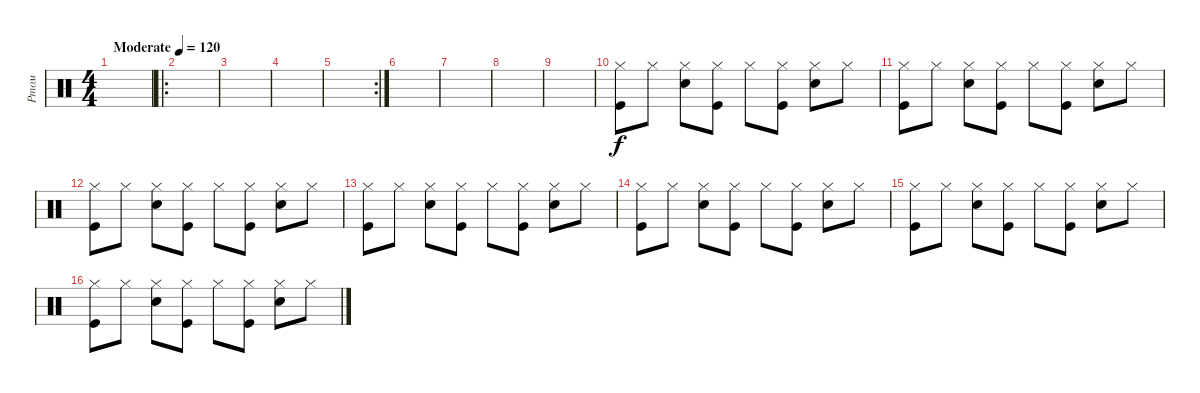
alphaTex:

\track ("Ртом" "Ртом") {instrument percussion}
\staff {score}
\articulation defaults
\ts (4 4)
\tempo (120 "Moderate")
\clef neutral
\ks c
|
\ro
|
|
|
\rc 2
|
|
|
|
|
("Hi-Hat (closed)" "Kick (hit)").8 "Hi-Hat (closed)".8 ("Hi-Hat (closed)" "Snare (hit) 2").8 ("Hi-Hat (closed)" "Kick (hit)").8 "Hi-Hat (closed)".8 ("Hi-Hat (closed)" "Kick (hit)").8 ("Hi-Hat (closed)" "Snare (hit) 2").8 "Hi-Hat (closed)".8 |
("Hi-Hat (closed)" "Kick (hit)").8 "Hi-Hat (closed)".8 ("Hi-Hat (closed)" "Snare (hit) 2").8 ("Hi-Hat (closed)" "Kick (hit)").8 "Hi-Hat (closed)".8 ("Hi-Hat (closed)" "Kick (hit)").8 ("Hi-Hat (closed)" "Snare (hit) 2").8 "Hi-Hat (closed)".8 |
("Hi-Hat (closed)" "Kick (hit)").8 "Hi-Hat (closed)".8 ("Hi-Hat (closed)" "Snare (hit) 2").8 ("Hi-Hat (closed)" "Kick (hit)").8 "Hi-Hat (closed)".8 ("Hi-Hat (closed)" "Kick (hit)").8 ("Hi-Hat (closed)" "Snare (hit) 2").8 "Hi-Hat (closed)".8 |
("Hi-Hat (closed)" "Kick (hit)").8 "Hi-Hat (closed)".8 ("Hi-Hat (closed)" "Snare (hit) 2").8 ("Hi-Hat (closed)" "Kick (hit)").8 "Hi-Hat (closed)".8 ("Hi-Hat (closed)" "Kick (hit)").8 ("Hi-Hat (closed)" "Snare (hit) 2").8 "Hi-Hat (closed)".8 |
("Hi-Hat (closed)" "Kick (hit)").8 "Hi-Hat (closed)".8 ("Hi-Hat (closed)" "Snare (hit) 2").8 ("Hi-Hat (closed)" "Kick (hit)").8 "Hi-Hat (closed)".8 ("Hi-Hat (closed)" "Kick (hit)").8 ("Hi-Hat (closed)" "Snare (hit) 2").8 "Hi-Hat (closed)".8 |
("Hi-Hat (closed)" "Kick (hit)").8 "Hi-Hat (closed)".8 ("Hi-Hat (closed)" "Snare (hit) 2").8 ("Hi-Hat (closed)" "Kick (hit)").8 "Hi-Hat (closed)".8 ("Hi-Hat (closed)" "Kick (hit)").8 ("Hi-Hat (closed)" "Snare (hit) 2").8 "Hi-Hat (closed)".8 |
("Hi-Hat (closed)" "Kick (hit)").8 "Hi-Hat (closed)".8 ("Hi-Hat (closed)" "Snare (hit) 2").8 ("Hi-Hat (closed)" "Kick (hit)").8 "Hi-Hat (closed)".8 ("Hi-Hat (closed)" "Kick (hit)").8 ("Hi-Hat (closed)" "Snare (hit) 2").8 "Hi-Hat (closed)".8
